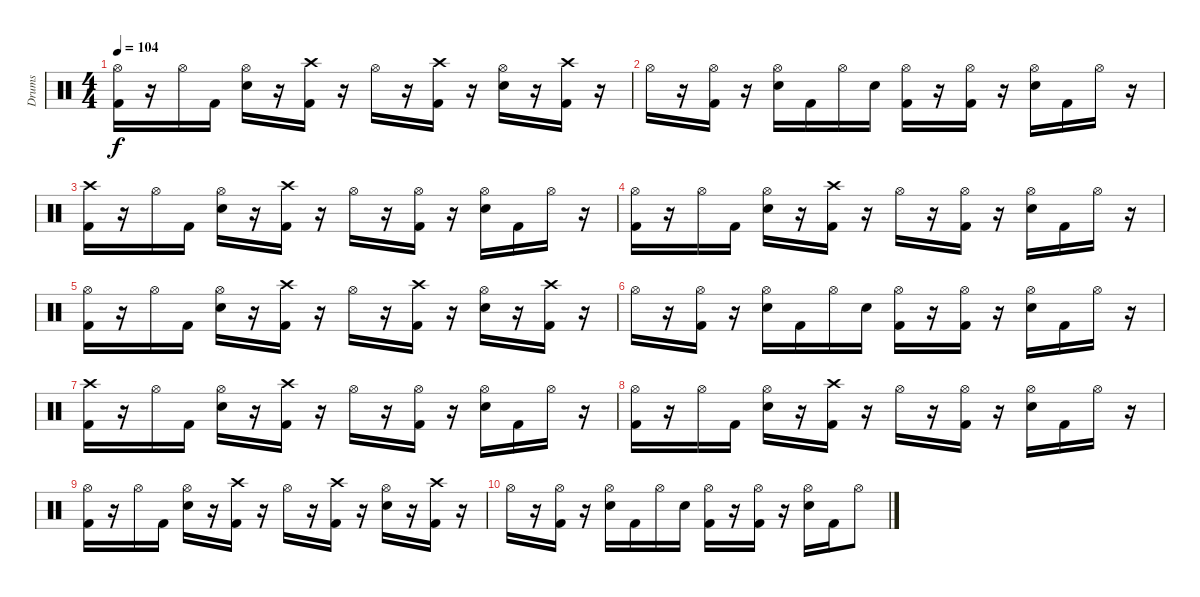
\track ("Drums" "Drums") {instrument percussion}
\staff {score}
\articulation defaults
\ts (4 4)
\tempo 104
\clef neutral
\ks c
("Hi-Hat (open)" "Kick (hit) 2").16{dy f} r.16 "Hi-Hat (open)".16 "Kick (hit) 2".16 ("Hi-Hat (open)" "Snare (hit) 2").16 r.16 ("Crash high (hit)" "Kick (hit) 2").16 r.16 "Hi-Hat (open)".16 r.16 ("Crash high (hit)" "Kick (hit) 2").16 r.16 ("Hi-Hat (open)" "Snare (hit) 2").16 r.16 ("Crash high (hit)" "Kick (hit) 2").16 r.16 |
"Hi-Hat (open)".16 r.16 ("Hi-Hat (open)" "Kick (hit) 2").16 r.16 ("Hi-Hat (open)" "Snare (hit) 2").16 "Kick (hit) 2".16 "Hi-Hat (open)".16 "Snare (hit) 2".16 ("Hi-Hat (open)" "Kick (hit) 2").16 r.16 ("Hi-Hat (open)" "Kick (hit) 2").16 r.16 ("Hi-Hat (open)" "Snare (hit) 2").16 "Kick (hit) 2".16 "Hi-Hat (open)".16 r.16 |
("Crash high (hit)" "Kick (hit) 2").16 r.16 "Hi-Hat (open)".16 "Kick (hit) 2".16 ("Hi-Hat (open)" "Snare (hit) 2").16 r.16 ("Crash high (hit)" "Kick (hit) 2").16 r.16 "Hi-Hat (open)".16 r.16 ("Hi-Hat (open)" "Kick (hit) 2").16 r.16 ("Hi-Hat (open)" "Snare (hit) 2").16 "Kick (hit) 2".16 "Hi-Hat (open)".16 r.16 |
("Hi-Hat (open)" "Kick (hit) 2").16 r.16 "Hi-Hat (open)".16 "Kick (hit) 2".16 ("Hi-Hat (open)" "Snare (hit) 2").16 r.16 ("Crash high (hit)" "Kick (hit) 2").16 r.16 "Hi-Hat (open)".16 r.16 ("Hi-Hat (open)" "Kick (hit) 2").16 r.16 ("Hi-Hat (open)" "Snare (hit) 2").16 "Kick (hit) 2".16 "Hi-Hat (open)".16 r.16 |
("Hi-Hat (open)" "Kick (hit) 2").16 r.16 "Hi-Hat (open)".16 "Kick (hit) 2".16 ("Hi-Hat (open)" "Snare (hit) 2").16 r.16 ("Crash high (hit)" "Kick (hit) 2").16 r.16 "Hi-Hat (open)".16 r.16 ("Crash high (hit)" "Kick (hit) 2").16 r.16 ("Hi-Hat (open)" "Snare (hit) 2").16 r.16 ("Crash high (hit)" "Kick (hit) 2").16 r.16 |
"Hi-Hat (open)".16 r.16 ("Hi-Hat (open)" "Kick (hit) 2").16 r.16 ("Hi-Hat (open)" "Snare (hit) 2").16 "Kick (hit) 2".16 "Hi-Hat (open)".16 "Snare (hit) 2".16 ("Hi-Hat (open)" "Kick (hit) 2").16 r.16 ("Hi-Hat (open)" "Kick (hit) 2").16 r.16 ("Hi-Hat (open)" "Snare (hit) 2").16 "Kick (hit) 2".16 "Hi-Hat (open)".16 r.16 |
("Crash high (hit)" "Kick (hit) 2").16 r.16 "Hi-Hat (open)".16 "Kick (hit) 2".16 ("Hi-Hat (open)" "Snare (hit) 2").16 r.16 ("Crash high (hit)" "Kick (hit) 2").16 r.16 "Hi-Hat (open)".16 r.16 ("Hi-Hat (open)" "Kick (hit) 2").16 r.16 ("Hi-Hat (open)" "Snare (hit) 2").16 "Kick (hit) 2".16 "Hi-Hat (open)".16 r.16 |
("Hi-Hat (open)" "Kick (hit) 2").16 r.16 "Hi-Hat (open)".16 "Kick (hit) 2".16 ("Hi-Hat (open)" "Snare (hit) 2").16 r.16 ("Crash high (hit)" "Kick (hit) 2").16 r.16 "Hi-Hat (open)".16 r.16 ("Hi-Hat (open)" "Kick (hit) 2").16 r.16 ("Hi-Hat (open)" "Snare (hit) 2").16 "Kick (hit) 2".16 "Hi-Hat (open)".16 r.16 |
("Hi-Hat (open)" "Kick (hit) 2").16 r.16 "Hi-Hat (open)".16 "Kick (hit) 2".16 ("Hi-Hat (open)" "Snare (hit) 2").16 r.16 ("Crash high (hit)" "Kick (hit) 2").16 r.16 "Hi-Hat (open)".16 r.16 ("Crash high (hit)" "Kick (hit) 2").16 r.16 ("Hi-Hat (open)" "Snare (hit) 2").16 r.16 ("Crash high (hit)" "Kick (hit) 2").16 r.16 |
"Hi-Hat (open)".16 r.16 ("Hi-Hat (open)" "Kick (hit) 2").16 r.16 ("Hi-Hat (open)" "Snare (hit) 2").16 "Kick (hit) 2".16 "Hi-Hat (open)".16 "Snare (hit) 2".16 ("Hi-Hat (open)" "Kick (hit) 2").16 r.16 ("Hi-Hat (open)" "Kick (hit) 2").16 r.16 ("Hi-Hat (open)" "Snare (hit) 2").16 "Kick (hit) 2".16 "Hi-Hat (open)".8
